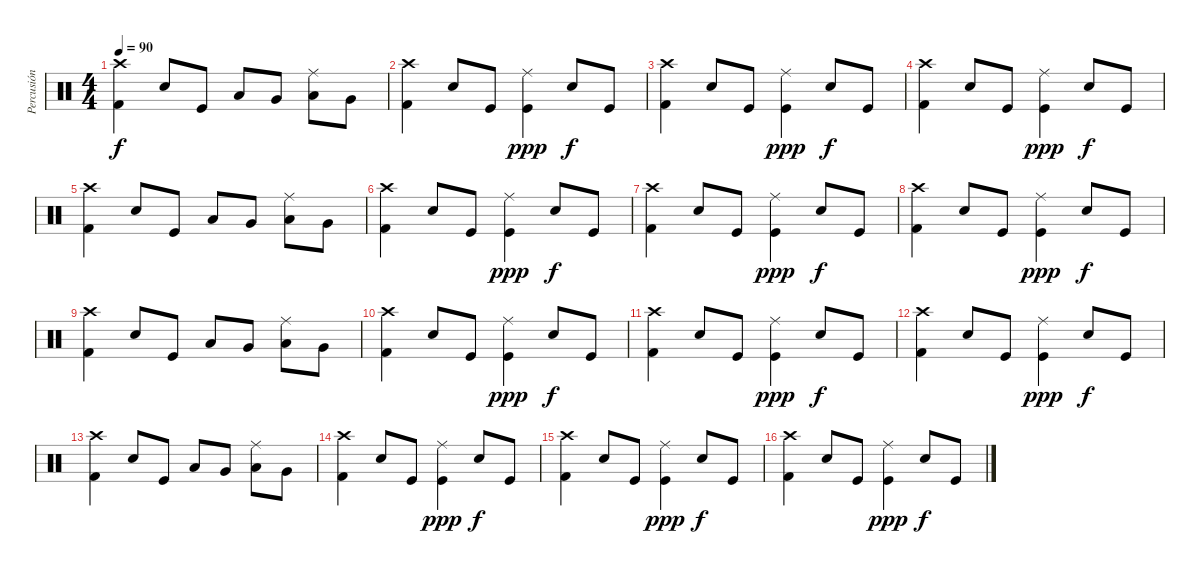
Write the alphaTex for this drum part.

\track ("Percusión" "Percusión") {instrument percussion}
\staff {score}
\articulation defaults
\ts (4 4)
\tempo 90
\clef neutral
\ks c
("Kick (hit) 2" "Crash high (hit)").4{dy f} "Snare (hit) 2".8 "Kick (hit)".8 "Low Tom (hit)".8 "Very Low Tom (hit)".8 ("Low Floor Tom (hit)" "Ride (middle)").8 "Very Low Tom (hit)".8 |
("Kick (hit) 2" "Crash high (hit)").4 "Snare (hit) 2".8 "Kick (hit)".8 ("Kick (hit)" "Ride (middle)").4{dy ppp} "Snare (hit) 2".8{dy f} "Kick (hit)".8 |
("Kick (hit) 2" "Crash high (hit)").4 "Snare (hit) 2".8 "Kick (hit)".8 ("Kick (hit)" "Ride (middle)").4{dy ppp} "Snare (hit) 2".8{dy f} "Kick (hit)".8 |
("Kick (hit) 2" "Crash high (hit)").4 "Snare (hit) 2".8 "Kick (hit)".8 ("Kick (hit)" "Ride (middle)").4{dy ppp} "Snare (hit) 2".8{dy f} "Kick (hit)".8 |
("Kick (hit) 2" "Crash high (hit)").4 "Snare (hit) 2".8 "Kick (hit)".8 "Low Tom (hit)".8 "Very Low Tom (hit)".8 ("Low Floor Tom (hit)" "Ride (middle)").8 "Very Low Tom (hit)".8 |
("Kick (hit) 2" "Crash high (hit)").4 "Snare (hit) 2".8 "Kick (hit)".8 ("Kick (hit)" "Ride (middle)").4{dy ppp} "Snare (hit) 2".8{dy f} "Kick (hit)".8 |
("Kick (hit) 2" "Crash high (hit)").4 "Snare (hit) 2".8 "Kick (hit)".8 ("Kick (hit)" "Ride (middle)").4{dy ppp} "Snare (hit) 2".8{dy f} "Kick (hit)".8 |
("Kick (hit) 2" "Crash high (hit)").4 "Snare (hit) 2".8 "Kick (hit)".8 ("Kick (hit)" "Ride (middle)").4{dy ppp} "Snare (hit) 2".8{dy f} "Kick (hit)".8 |
("Kick (hit) 2" "Crash high (hit)").4 "Snare (hit) 2".8 "Kick (hit)".8 "Low Tom (hit)".8 "Very Low Tom (hit)".8 ("Low Floor Tom (hit)" "Ride (middle)").8 "Very Low Tom (hit)".8 |
("Kick (hit) 2" "Crash high (hit)").4 "Snare (hit) 2".8 "Kick (hit)".8 ("Kick (hit)" "Ride (middle)").4{dy ppp} "Snare (hit) 2".8{dy f} "Kick (hit)".8 |
("Kick (hit) 2" "Crash high (hit)").4 "Snare (hit) 2".8 "Kick (hit)".8 ("Kick (hit)" "Ride (middle)").4{dy ppp} "Snare (hit) 2".8{dy f} "Kick (hit)".8 |
("Kick (hit) 2" "Crash high (hit)").4 "Snare (hit) 2".8 "Kick (hit)".8 ("Kick (hit)" "Ride (middle)").4{dy ppp} "Snare (hit) 2".8{dy f} "Kick (hit)".8 |
("Kick (hit) 2" "Crash high (hit)").4 "Snare (hit) 2".8 "Kick (hit)".8 "Low Tom (hit)".8 "Very Low Tom (hit)".8 ("Low Floor Tom (hit)" "Ride (middle)").8 "Very Low Tom (hit)".8 |
("Kick (hit) 2" "Crash high (hit)").4 "Snare (hit) 2".8 "Kick (hit)".8 ("Kick (hit)" "Ride (middle)").4{dy ppp} "Snare (hit) 2".8{dy f} "Kick (hit)".8 |
("Kick (hit) 2" "Crash high (hit)").4 "Snare (hit) 2".8 "Kick (hit)".8 ("Kick (hit)" "Ride (middle)").4{dy ppp} "Snare (hit) 2".8{dy f} "Kick (hit)".8 |
("Kick (hit) 2" "Crash high (hit)").4 "Snare (hit) 2".8 "Kick (hit)".8 ("Kick (hit)" "Ride (middle)").4{dy ppp} "Snare (hit) 2".8{dy f} "Kick (hit)".8
